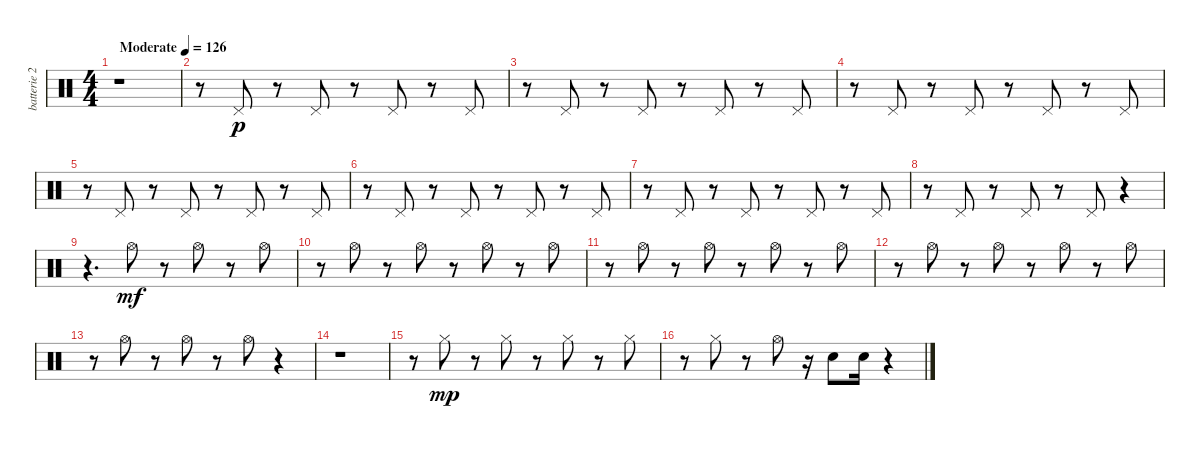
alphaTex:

\track ("batterie 2" "batterie 2") {instrument percussion}
\staff {score}
\articulation defaults
\ts (4 4)
\tempo (126 "Moderate")
\clef neutral
\ks c
r.1{dy p} |
r.8 "Pedal Hi-Hat (hit)".8 r.8 "Pedal Hi-Hat (hit)".8 r.8 "Pedal Hi-Hat (hit)".8 r.8 "Pedal Hi-Hat (hit)".8 |
r.8 "Pedal Hi-Hat (hit)".8 r.8 "Pedal Hi-Hat (hit)".8 r.8 "Pedal Hi-Hat (hit)".8 r.8 "Pedal Hi-Hat (hit)".8 |
r.8 "Pedal Hi-Hat (hit)".8 r.8 "Pedal Hi-Hat (hit)".8 r.8 "Pedal Hi-Hat (hit)".8 r.8 "Pedal Hi-Hat (hit)".8 |
r.8 "Pedal Hi-Hat (hit)".8 r.8 "Pedal Hi-Hat (hit)".8 r.8 "Pedal Hi-Hat (hit)".8 r.8 "Pedal Hi-Hat (hit)".8 |
r.8 "Pedal Hi-Hat (hit)".8 r.8 "Pedal Hi-Hat (hit)".8 r.8 "Pedal Hi-Hat (hit)".8 r.8 "Pedal Hi-Hat (hit)".8 |
r.8 "Pedal Hi-Hat (hit)".8 r.8 "Pedal Hi-Hat (hit)".8 r.8 "Pedal Hi-Hat (hit)".8 r.8 "Pedal Hi-Hat (hit)".8 |
r.8 "Pedal Hi-Hat (hit)".8 r.8 "Pedal Hi-Hat (hit)".8 r.8 "Pedal Hi-Hat (hit)".8 r.4 |
r.4{d} "Hi-Hat (open)".8{dy mf} r.8 "Hi-Hat (open)".8 r.8 "Hi-Hat (open)".8 |
r.8 "Hi-Hat (open)".8 r.8 "Hi-Hat (open)".8 r.8 "Hi-Hat (open)".8 r.8 "Hi-Hat (open)".8 |
r.8 "Hi-Hat (open)".8 r.8 "Hi-Hat (open)".8 r.8 "Hi-Hat (open)".8 r.8 "Hi-Hat (open)".8 |
r.8 "Hi-Hat (open)".8 r.8 "Hi-Hat (open)".8 r.8 "Hi-Hat (open)".8 r.8 "Hi-Hat (open)".8 |
r.8 "Hi-Hat (open)".8 r.8 "Hi-Hat (open)".8 r.8 "Hi-Hat (open)".8 r.4 |
r.1 |
r.8 "Hi-Hat (closed)".8{dy mp} r.8 "Hi-Hat (closed)".8 r.8 "Hi-Hat (closed)".8 r.8 "Hi-Hat (closed)".8 |
r.8 "Hi-Hat (closed)".8 r.8 "Hi-Hat (open)".8 r.16 "Electric Snare (hit)".8 "Electric Snare (hit)".16 r.4
